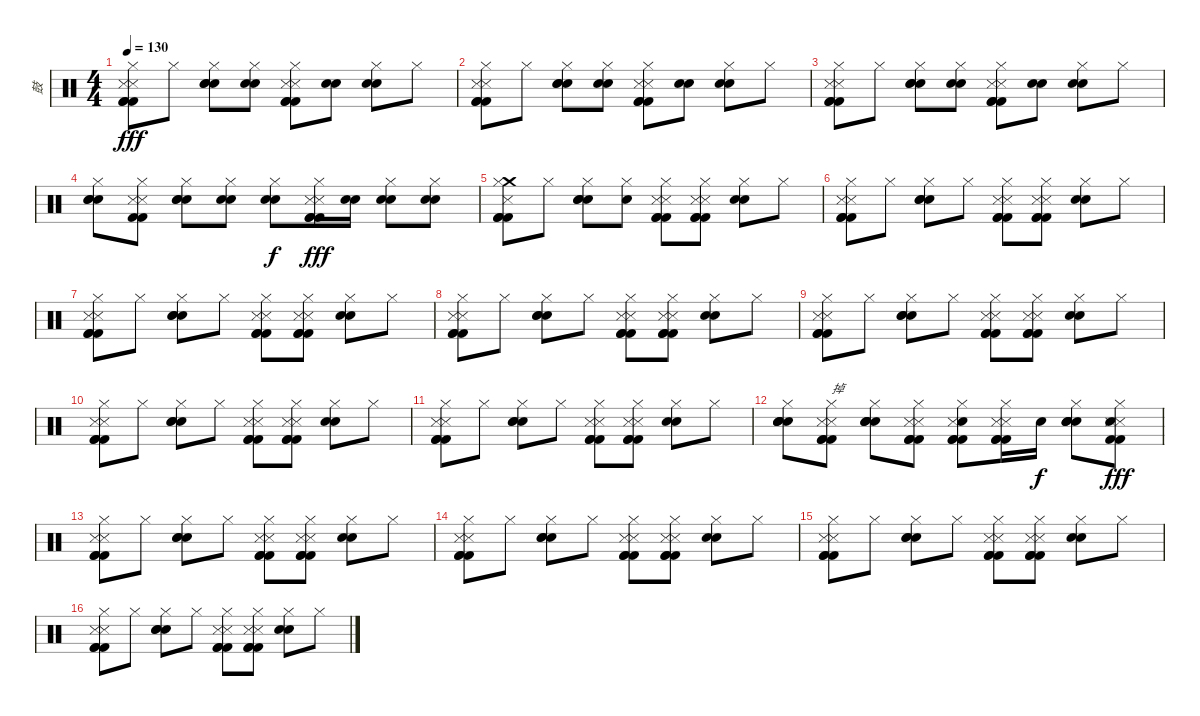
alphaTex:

\track ("鼓" "鼓") {instrument percussion}
\staff {score}
\articulation defaults
\ts (4 4)
\tempo 130
\clef neutral
\ks c
("Metronome (hit)" "Metronome (hit)" "Kick (hit) 2" "Kick (hit) 2" "Kick (hit) 2" "Hi-Hat (closed)").8{dy fff} "Hi-Hat (closed)".8 ("Electric Snare (hit)" "Electric Snare (hit)" "Electric Snare (hit)" "Hi-Hat (closed)").8 ("Hand Clap (hit)" "Hand Clap (hit)" "Hi-Hat (closed)").8 ("Metronome (hit)" "Metronome (hit)" "Kick (hit) 2" "Kick (hit) 2" "Kick (hit) 2" "Hi-Hat (closed)").8 ("Hand Clap (hit)" "Hand Clap (hit)").8 ("Electric Snare (hit)" "Electric Snare (hit)" "Hi-Hat (closed)").8 "Hi-Hat (closed)".8 |
("Metronome (hit)" "Metronome (hit)" "Kick (hit) 2" "Kick (hit) 2" "Kick (hit) 2" "Hi-Hat (closed)").8 "Hi-Hat (closed)".8 ("Electric Snare (hit)" "Electric Snare (hit)" "Electric Snare (hit)" "Hi-Hat (closed)").8 ("Hand Clap (hit)" "Hand Clap (hit)" "Hi-Hat (closed)").8 ("Metronome (hit)" "Metronome (hit)" "Kick (hit) 2" "Kick (hit) 2" "Kick (hit) 2" "Hi-Hat (closed)").8 ("Hand Clap (hit)" "Hand Clap (hit)").8 ("Electric Snare (hit)" "Electric Snare (hit)" "Hi-Hat (closed)").8 "Hi-Hat (closed)".8 |
("Metronome (hit)" "Metronome (hit)" "Kick (hit) 2" "Kick (hit) 2" "Kick (hit) 2" "Hi-Hat (closed)").8 "Hi-Hat (closed)".8 ("Electric Snare (hit)" "Electric Snare (hit)" "Electric Snare (hit)" "Hi-Hat (closed)").8 ("Hand Clap (hit)" "Hand Clap (hit)" "Hi-Hat (closed)").8 ("Metronome (hit)" "Metronome (hit)" "Kick (hit) 2" "Kick (hit) 2" "Kick (hit) 2" "Hi-Hat (closed)").8 ("Hand Clap (hit)" "Hand Clap (hit)").8 ("Electric Snare (hit)" "Electric Snare (hit)" "Hi-Hat (closed)").8 "Hi-Hat (closed)".8 |
("Electric Snare (hit)" "Electric Snare (hit)" "Electric Snare (hit)" "Hi-Hat (closed)").8 ("Metronome (hit)" "Metronome (hit)" "Kick (hit) 2" "Kick (hit) 2" "Hi-Hat (closed)").8 ("Electric Snare (hit)" "Electric Snare (hit)" "Electric Snare (hit)" "Hi-Hat (closed)").8 ("Electric Snare (hit)" "Electric Snare (hit)" "Hi-Hat (closed)").8 ("Hand Clap (hit)" "Hand Clap (hit)" "Hi-Hat (closed)").8{dy f} ("Metronome (hit)" "Metronome (hit)" "Kick (hit) 2" "Kick (hit) 2" "Kick (hit) 2" "Hi-Hat (closed)").16{dy fff} ("Hand Clap (hit)" "Hand Clap (hit)").16 ("Hand Clap (hit)" "Hand Clap (hit)" "Hi-Hat (closed)").8 ("Hand Clap (hit)" "Hand Clap (hit)" "Hi-Hat (closed)").8 |
("Crash medium (hit)" "Metronome (hit)" "Kick (hit) 2" "Kick (hit) 2" "Kick (hit) 2" "Hi-Hat (closed)").8{volume 14} "Hi-Hat (closed)".8{volume 11} ("Electric Snare (hit)" "Electric Snare (hit)" "Electric Snare (hit)" "Hi-Hat (closed)").8 ("Hand Clap (hit)" "Hi-Hat (closed)").8 ("Metronome (hit)" "Metronome (hit)" "Kick (hit) 2" "Kick (hit) 2" "Kick (hit) 2" "Hi-Hat (closed)").8 ("Metronome (hit)" "Metronome (hit)" "Kick (hit) 2" "Kick (hit) 2" "Kick (hit) 2" "Hi-Hat (closed)").8 ("Electric Snare (hit)" "Electric Snare (hit)" "Hi-Hat (closed)").8 "Hi-Hat (closed)".8 |
("Metronome (hit)" "Metronome (hit)" "Kick (hit) 2" "Kick (hit) 2" "Kick (hit) 2" "Hi-Hat (closed)").8 "Hi-Hat (closed)".8 ("Electric Snare (hit)" "Electric Snare (hit)" "Electric Snare (hit)" "Hi-Hat (closed)").8 "Hi-Hat (closed)".8 ("Metronome (hit)" "Metronome (hit)" "Kick (hit) 2" "Kick (hit) 2" "Kick (hit) 2" "Hi-Hat (closed)").8 ("Metronome (hit)" "Metronome (hit)" "Kick (hit) 2" "Kick (hit) 2" "Kick (hit) 2" "Hi-Hat (closed)").8 ("Electric Snare (hit)" "Electric Snare (hit)" "Hi-Hat (closed)").8 "Hi-Hat (closed)".8 |
("Metronome (hit)" "Metronome (hit)" "Kick (hit) 2" "Kick (hit) 2" "Kick (hit) 2" "Hi-Hat (closed)").8 "Hi-Hat (closed)".8 ("Electric Snare (hit)" "Electric Snare (hit)" "Electric Snare (hit)" "Hi-Hat (closed)").8 "Hi-Hat (closed)".8 ("Metronome (hit)" "Metronome (hit)" "Kick (hit) 2" "Kick (hit) 2" "Kick (hit) 2" "Hi-Hat (closed)").8 ("Metronome (hit)" "Metronome (hit)" "Kick (hit) 2" "Kick (hit) 2" "Kick (hit) 2" "Hi-Hat (closed)").8 ("Electric Snare (hit)" "Electric Snare (hit)" "Hi-Hat (closed)").8 "Hi-Hat (closed)".8 |
("Metronome (hit)" "Metronome (hit)" "Kick (hit) 2" "Kick (hit) 2" "Kick (hit) 2" "Hi-Hat (closed)").8 "Hi-Hat (closed)".8 ("Electric Snare (hit)" "Electric Snare (hit)" "Electric Snare (hit)" "Hi-Hat (closed)").8 "Hi-Hat (closed)".8 ("Metronome (hit)" "Metronome (hit)" "Kick (hit) 2" "Kick (hit) 2" "Kick (hit) 2" "Hi-Hat (closed)").8 ("Metronome (hit)" "Metronome (hit)" "Kick (hit) 2" "Kick (hit) 2" "Kick (hit) 2" "Hi-Hat (closed)").8 ("Electric Snare (hit)" "Electric Snare (hit)" "Hi-Hat (closed)").8 "Hi-Hat (closed)".8 |
("Metronome (hit)" "Metronome (hit)" "Kick (hit) 2" "Kick (hit) 2" "Kick (hit) 2" "Hi-Hat (closed)").8 "Hi-Hat (closed)".8 ("Electric Snare (hit)" "Electric Snare (hit)" "Electric Snare (hit)" "Hi-Hat (closed)").8 "Hi-Hat (closed)".8 ("Metronome (hit)" "Metronome (hit)" "Kick (hit) 2" "Kick (hit) 2" "Kick (hit) 2" "Hi-Hat (closed)").8 ("Metronome (hit)" "Metronome (hit)" "Kick (hit) 2" "Kick (hit) 2" "Kick (hit) 2" "Hi-Hat (closed)").8 ("Electric Snare (hit)" "Electric Snare (hit)" "Hi-Hat (closed)").8 "Hi-Hat (closed)".8 |
("Metronome (hit)" "Metronome (hit)" "Kick (hit) 2" "Kick (hit) 2" "Kick (hit) 2" "Hi-Hat (closed)").8 "Hi-Hat (closed)".8 ("Electric Snare (hit)" "Electric Snare (hit)" "Electric Snare (hit)" "Hi-Hat (closed)").8 "Hi-Hat (closed)".8 ("Metronome (hit)" "Metronome (hit)" "Kick (hit) 2" "Kick (hit) 2" "Kick (hit) 2" "Hi-Hat (closed)").8 ("Metronome (hit)" "Metronome (hit)" "Kick (hit) 2" "Kick (hit) 2" "Kick (hit) 2" "Hi-Hat (closed)").8 ("Electric Snare (hit)" "Electric Snare (hit)" "Hi-Hat (closed)").8 "Hi-Hat (closed)".8 |
("Metronome (hit)" "Metronome (hit)" "Kick (hit) 2" "Kick (hit) 2" "Kick (hit) 2" "Hi-Hat (closed)").8 "Hi-Hat (closed)".8 ("Electric Snare (hit)" "Electric Snare (hit)" "Electric Snare (hit)" "Hi-Hat (closed)").8 "Hi-Hat (closed)".8 ("Metronome (hit)" "Metronome (hit)" "Kick (hit) 2" "Kick (hit) 2" "Kick (hit) 2" "Hi-Hat (closed)").8 ("Metronome (hit)" "Metronome (hit)" "Kick (hit) 2" "Kick (hit) 2" "Kick (hit) 2" "Hi-Hat (closed)").8 ("Electric Snare (hit)" "Electric Snare (hit)" "Hi-Hat (closed)").8 "Hi-Hat (closed)".8 |
("Hand Clap (hit)" "Snare (hit) 2" "Snare (hit) 2" "Snare (hit) 2" "Hi-Hat (closed)").8 ("Metronome (hit)" "Metronome (hit)" "Kick (hit) 2" "Kick (hit) 2" "Kick (hit) 2" "Hi-Hat (closed)").8{txt "掉"} ("Hand Clap (hit)" "Snare (hit) 2" "Snare (hit) 2" "Snare (hit) 2" "Hi-Hat (closed)").8 ("Metronome (hit)" "Metronome (hit)" "Kick (hit) 2" "Kick (hit) 2" "Kick (hit) 2" "Hi-Hat (closed)").8 ("Hand Clap (hit)" "Metronome (hit)" "Kick (hit) 2" "Kick (hit) 2" "Kick (hit) 2" "Hi-Hat (closed)").8 ("Metronome (hit)" "Metronome (hit)" "Kick (hit) 2" "Kick (hit) 2" "Kick (hit) 2" "Hi-Hat (closed)").16 "Hand Clap (hit)".16{dy f} ("Hand Clap (hit)" "Snare (hit) 2" "Snare (hit) 2" "Snare (hit) 2" "Hi-Hat (closed)").8 ("Metronome (hit)" "Metronome (hit)" "Kick (hit) 2" "Kick (hit) 2" "Hand Clap (hit)" "Hi-Hat (closed)").8{dy fff} |
("Metronome (hit)" "Metronome (hit)" "Kick (hit) 2" "Kick (hit) 2" "Kick (hit) 2" "Hi-Hat (closed)").8 "Hi-Hat (closed)".8 ("Electric Snare (hit)" "Electric Snare (hit)" "Electric Snare (hit)" "Hi-Hat (closed)").8 "Hi-Hat (closed)".8 ("Metronome (hit)" "Metronome (hit)" "Kick (hit) 2" "Kick (hit) 2" "Kick (hit) 2" "Hi-Hat (closed)").8 ("Metronome (hit)" "Metronome (hit)" "Kick (hit) 2" "Kick (hit) 2" "Kick (hit) 2" "Hi-Hat (closed)").8 ("Electric Snare (hit)" "Electric Snare (hit)" "Hi-Hat (closed)").8 "Hi-Hat (closed)".8 |
("Metronome (hit)" "Metronome (hit)" "Kick (hit) 2" "Kick (hit) 2" "Kick (hit) 2" "Hi-Hat (closed)").8 "Hi-Hat (closed)".8 ("Electric Snare (hit)" "Electric Snare (hit)" "Electric Snare (hit)" "Hi-Hat (closed)").8 "Hi-Hat (closed)".8 ("Metronome (hit)" "Metronome (hit)" "Kick (hit) 2" "Kick (hit) 2" "Kick (hit) 2" "Hi-Hat (closed)").8 ("Metronome (hit)" "Metronome (hit)" "Kick (hit) 2" "Kick (hit) 2" "Kick (hit) 2" "Hi-Hat (closed)").8 ("Electric Snare (hit)" "Electric Snare (hit)" "Hi-Hat (closed)").8 "Hi-Hat (closed)".8 |
("Metronome (hit)" "Metronome (hit)" "Kick (hit) 2" "Kick (hit) 2" "Kick (hit) 2" "Hi-Hat (closed)").8 "Hi-Hat (closed)".8 ("Electric Snare (hit)" "Electric Snare (hit)" "Electric Snare (hit)" "Hi-Hat (closed)").8 "Hi-Hat (closed)".8 ("Metronome (hit)" "Metronome (hit)" "Kick (hit) 2" "Kick (hit) 2" "Kick (hit) 2" "Hi-Hat (closed)").8 ("Metronome (hit)" "Metronome (hit)" "Kick (hit) 2" "Kick (hit) 2" "Kick (hit) 2" "Hi-Hat (closed)").8 ("Electric Snare (hit)" "Electric Snare (hit)" "Hi-Hat (closed)").8 "Hi-Hat (closed)".8 |
("Metronome (hit)" "Metronome (hit)" "Kick (hit) 2" "Kick (hit) 2" "Kick (hit) 2" "Hi-Hat (closed)").8 "Hi-Hat (closed)".8 ("Electric Snare (hit)" "Electric Snare (hit)" "Electric Snare (hit)" "Hi-Hat (closed)").8 "Hi-Hat (closed)".8 ("Metronome (hit)" "Metronome (hit)" "Kick (hit) 2" "Kick (hit) 2" "Kick (hit) 2" "Hi-Hat (closed)").8 ("Metronome (hit)" "Metronome (hit)" "Kick (hit) 2" "Kick (hit) 2" "Kick (hit) 2" "Hi-Hat (closed)").8 ("Electric Snare (hit)" "Electric Snare (hit)" "Hi-Hat (closed)").8 "Hi-Hat (closed)".8
